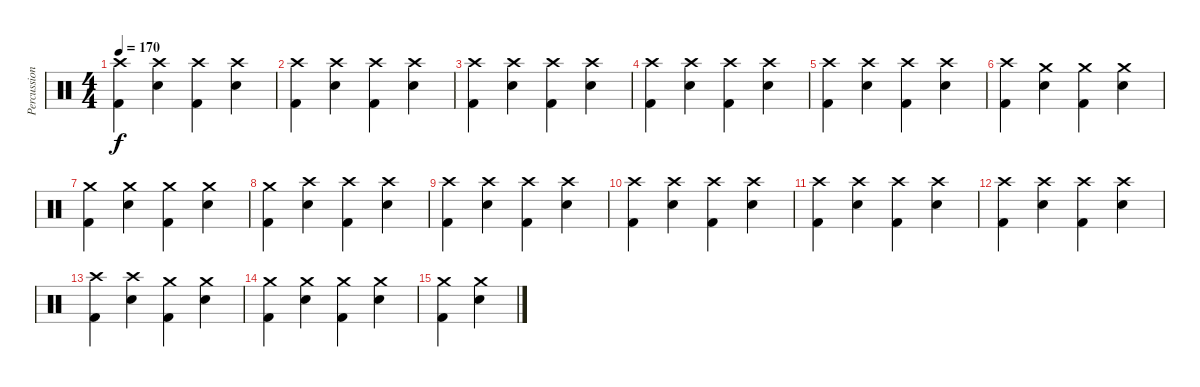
\track ("Percussion" "Percussion") {instrument percussion}
\staff {score}
\articulation defaults
\ts (4 4)
\tempo 170
\clef neutral
\ks c
("Crash high (hit)" "Kick (hit) 2").4{dy f} ("Snare (hit) 2" "Crash high (hit)").4 ("Crash high (hit)" "Kick (hit) 2").4 ("Snare (hit) 2" "Crash high (hit)").4 |
("Crash high (hit)" "Kick (hit) 2").4 ("Snare (hit) 2" "Crash high (hit)").4 ("Crash high (hit)" "Kick (hit) 2").4 ("Snare (hit) 2" "Crash high (hit)").4 |
("Crash high (hit)" "Kick (hit) 2").4 ("Snare (hit) 2" "Crash high (hit)").4 ("Crash high (hit)" "Kick (hit) 2").4 ("Snare (hit) 2" "Crash high (hit)").4 |
("Crash high (hit)" "Kick (hit) 2").4 ("Snare (hit) 2" "Crash high (hit)").4 ("Crash high (hit)" "Kick (hit) 2").4 ("Snare (hit) 2" "Crash high (hit)").4 |
("Crash high (hit)" "Kick (hit) 2").4 ("Snare (hit) 2" "Crash high (hit)").4 ("Crash high (hit)" "Kick (hit) 2").4 ("Snare (hit) 2" "Crash high (hit)").4 |
("Crash high (hit)" "Kick (hit) 2").4 ("Snare (hit) 2" "Crash medium (hit)").4 ("Crash medium (hit)" "Kick (hit) 2").4 ("Snare (hit) 2" "Crash medium (hit)").4 |
("Crash medium (hit)" "Kick (hit) 2").4 ("Snare (hit) 2" "Crash medium (hit)").4 ("Crash medium (hit)" "Kick (hit) 2").4 ("Snare (hit) 2" "Crash medium (hit)").4 |
("Crash medium (hit)" "Kick (hit) 2").4 ("Snare (hit) 2" "Crash high (hit)").4 ("Crash high (hit)" "Kick (hit) 2").4 ("Snare (hit) 2" "Crash high (hit)").4 |
("Crash high (hit)" "Kick (hit) 2").4 ("Snare (hit) 2" "Crash high (hit)").4 ("Crash high (hit)" "Kick (hit) 2").4 ("Snare (hit) 2" "Crash high (hit)").4 |
("Crash high (hit)" "Kick (hit) 2").4 ("Snare (hit) 2" "Crash high (hit)").4 ("Crash high (hit)" "Kick (hit) 2").4 ("Snare (hit) 2" "Crash high (hit)").4 |
("Crash high (hit)" "Kick (hit) 2").4 ("Snare (hit) 2" "Crash high (hit)").4 ("Crash high (hit)" "Kick (hit) 2").4 ("Snare (hit) 2" "Crash high (hit)").4 |
("Crash high (hit)" "Kick (hit) 2").4 ("Snare (hit) 2" "Crash high (hit)").4 ("Crash high (hit)" "Kick (hit) 2").4 ("Snare (hit) 2" "Crash high (hit)").4 |
("Crash high (hit)" "Kick (hit) 2").4 ("Snare (hit) 2" "Crash high (hit)").4 ("Crash medium (hit)" "Kick (hit) 2").4 ("Snare (hit) 2" "Crash medium (hit)").4 |
("Crash medium (hit)" "Kick (hit) 2").4 ("Snare (hit) 2" "Crash medium (hit)").4 ("Crash medium (hit)" "Kick (hit) 2").4 ("Snare (hit) 2" "Crash medium (hit)").4 |
("Crash medium (hit)" "Kick (hit) 2").4 ("Snare (hit) 2" "Crash medium (hit)").4
